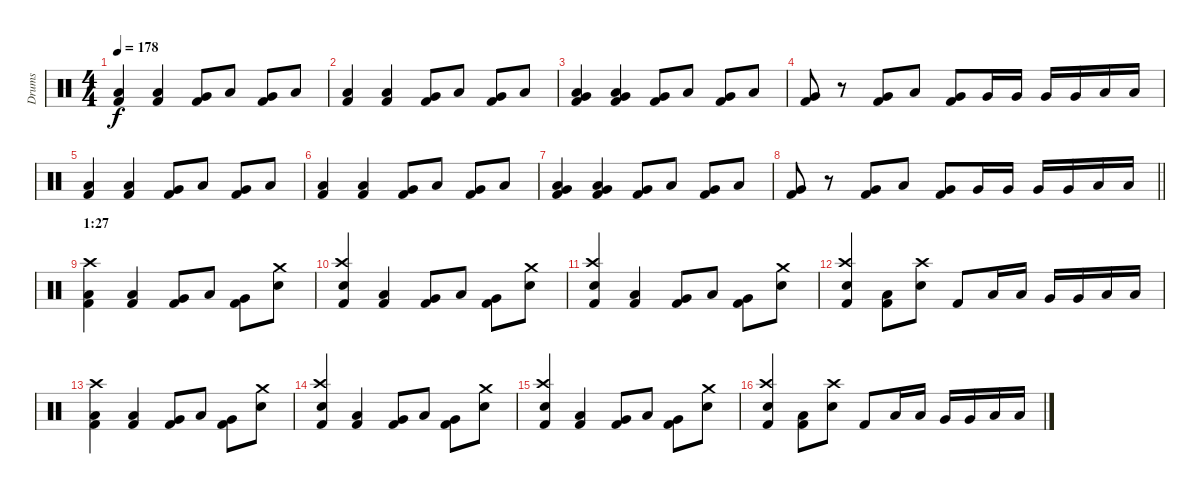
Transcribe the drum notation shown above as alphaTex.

\track ("Drums" "Drums") {instrument percussion}
\staff {score}
\articulation defaults
\ts (4 4)
\tempo 178
\clef neutral
\ks c
("Low Floor Tom (hit)" "Kick (hit) 2").4{dy f} ("Low Floor Tom (hit)" "Kick (hit) 2").4 ("Very Low Tom (hit)" "Kick (hit) 2").8 "Low Floor Tom (hit)".8 ("Very Low Tom (hit)" "Kick (hit) 2").8 "Low Floor Tom (hit)".8 |
("Low Floor Tom (hit)" "Kick (hit) 2").4 ("Low Floor Tom (hit)" "Kick (hit) 2").4 ("Very Low Tom (hit)" "Kick (hit) 2").8 "Low Floor Tom (hit)".8 ("Very Low Tom (hit)" "Kick (hit) 2").8 "Low Floor Tom (hit)".8 |
("Low Floor Tom (hit)" "Very Low Tom (hit)" "Kick (hit) 2").4 ("Low Floor Tom (hit)" "Very Low Tom (hit)" "Kick (hit) 2").4 ("Very Low Tom (hit)" "Kick (hit) 2").8 "Low Floor Tom (hit)".8 ("Very Low Tom (hit)" "Kick (hit) 2").8 "Low Floor Tom (hit)".8 |
("Very Low Tom (hit)" "Kick (hit) 2").8 r.8 ("Very Low Tom (hit)" "Kick (hit) 2").8 "Low Floor Tom (hit)".8 ("Very Low Tom (hit)" "Kick (hit) 2").8 "Very Low Tom (hit)".16 "Very Low Tom (hit)".16 "Very Low Tom (hit)".16 "Very Low Tom (hit)".16 "Low Floor Tom (hit)".16 "Low Floor Tom (hit)".16 |
("Low Floor Tom (hit)" "Kick (hit) 2").4 ("Low Floor Tom (hit)" "Kick (hit) 2").4 ("Very Low Tom (hit)" "Kick (hit) 2").8 "Low Floor Tom (hit)".8 ("Very Low Tom (hit)" "Kick (hit) 2").8 "Low Floor Tom (hit)".8 |
("Low Floor Tom (hit)" "Kick (hit) 2").4 ("Low Floor Tom (hit)" "Kick (hit) 2").4 ("Very Low Tom (hit)" "Kick (hit) 2").8 "Low Floor Tom (hit)".8 ("Very Low Tom (hit)" "Kick (hit) 2").8 "Low Floor Tom (hit)".8 |
("Low Floor Tom (hit)" "Very Low Tom (hit)" "Kick (hit) 2").4 ("Low Floor Tom (hit)" "Very Low Tom (hit)" "Kick (hit) 2").4 ("Very Low Tom (hit)" "Kick (hit) 2").8 "Low Floor Tom (hit)".8 ("Very Low Tom (hit)" "Kick (hit) 2").8 "Low Floor Tom (hit)".8 |
\barLineRight lightlight
("Very Low Tom (hit)" "Kick (hit) 2").8 r.8 ("Very Low Tom (hit)" "Kick (hit) 2").8 "Low Floor Tom (hit)".8 ("Very Low Tom (hit)" "Kick (hit) 2").8 "Very Low Tom (hit)".16 "Very Low Tom (hit)".16 "Very Low Tom (hit)".16 "Very Low Tom (hit)".16 "Low Floor Tom (hit)".16 "Low Floor Tom (hit)".16 |
\section ("" "1:27")
("Crash high (hit)" "Low Floor Tom (hit)" "Kick (hit) 2").4 ("Low Floor Tom (hit)" "Kick (hit) 2").4 ("Very Low Tom (hit)" "Kick (hit) 2").8 "Low Floor Tom (hit)".8 ("Very Low Tom (hit)" "Kick (hit) 2").8 ("Crash medium (hit)" "Electric Snare (hit)").8 |
("Crash high (hit)" "Electric Snare (hit)" "Kick (hit) 2").4 ("Low Floor Tom (hit)" "Kick (hit) 2").4 ("Very Low Tom (hit)" "Kick (hit) 2").8 "Low Floor Tom (hit)".8 ("Very Low Tom (hit)" "Kick (hit) 2").8 ("Crash medium (hit)" "Electric Snare (hit)").8 |
("Crash high (hit)" "Electric Snare (hit)" "Kick (hit) 2").4 ("Low Floor Tom (hit)" "Kick (hit) 2").4 ("Very Low Tom (hit)" "Kick (hit) 2").8 "Low Floor Tom (hit)".8 ("Very Low Tom (hit)" "Kick (hit) 2").8 ("Crash medium (hit)" "Electric Snare (hit)").8 |
("Crash high (hit)" "Electric Snare (hit)" "Kick (hit) 2").4 ("Low Floor Tom (hit)" "Kick (hit) 2").8 ("Crash high (hit)" "Electric Snare (hit)").8 "Kick (hit) 2".8 "Low Floor Tom (hit)".16 "Low Floor Tom (hit)".16 "Very Low Tom (hit)".16 "Very Low Tom (hit)".16 "Low Floor Tom (hit)".16 "Low Floor Tom (hit)".16 |
("Crash high (hit)" "Low Floor Tom (hit)" "Kick (hit) 2").4 ("Low Floor Tom (hit)" "Kick (hit) 2").4 ("Very Low Tom (hit)" "Kick (hit) 2").8 "Low Floor Tom (hit)".8 ("Very Low Tom (hit)" "Kick (hit) 2").8 ("Crash medium (hit)" "Electric Snare (hit)").8 |
("Crash high (hit)" "Electric Snare (hit)" "Kick (hit) 2").4 ("Low Floor Tom (hit)" "Kick (hit) 2").4 ("Very Low Tom (hit)" "Kick (hit) 2").8 "Low Floor Tom (hit)".8 ("Very Low Tom (hit)" "Kick (hit) 2").8 ("Crash medium (hit)" "Electric Snare (hit)").8 |
("Crash high (hit)" "Electric Snare (hit)" "Kick (hit) 2").4 ("Low Floor Tom (hit)" "Kick (hit) 2").4 ("Very Low Tom (hit)" "Kick (hit) 2").8 "Low Floor Tom (hit)".8 ("Very Low Tom (hit)" "Kick (hit) 2").8 ("Crash medium (hit)" "Electric Snare (hit)").8 |
("Crash high (hit)" "Electric Snare (hit)" "Kick (hit) 2").4 ("Low Floor Tom (hit)" "Kick (hit) 2").8 ("Crash high (hit)" "Electric Snare (hit)").8 "Kick (hit) 2".8 "Low Floor Tom (hit)".16 "Low Floor Tom (hit)".16 "Very Low Tom (hit)".16 "Very Low Tom (hit)".16 "Low Floor Tom (hit)".16 "Low Floor Tom (hit)".16
